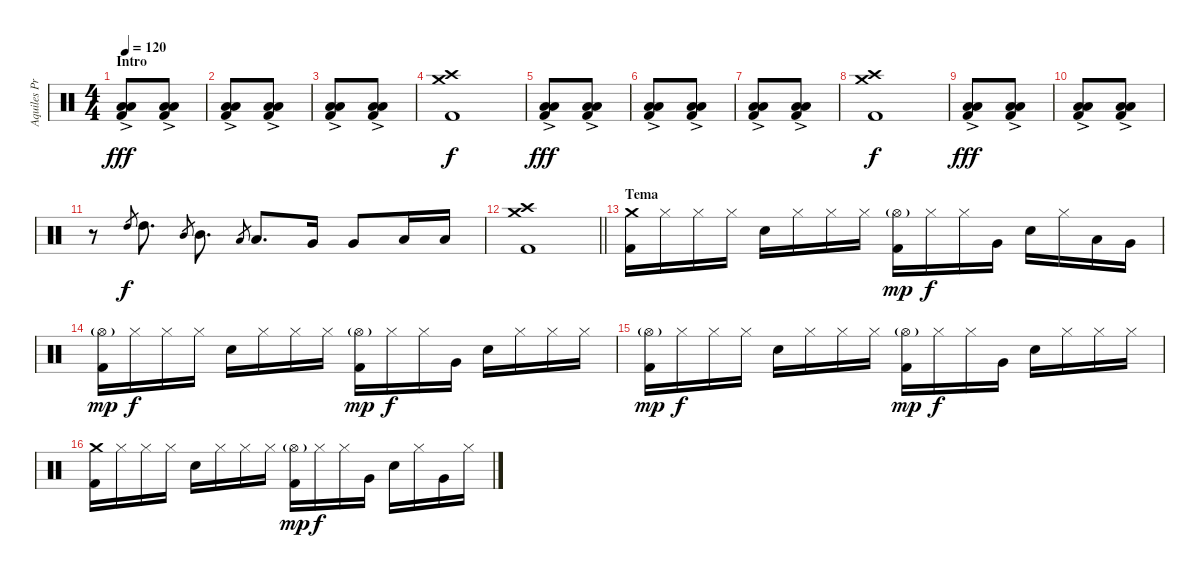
\track ("Aquiles Priester" "Aquiles Pr") {instrument percussion}
\staff {score}
\articulation defaults
\ts (4 4)
\section ("" "Intro")
\tempo 120
\clef neutral
\ks c
("Low Tom (hit)"{ac} "Low Floor Tom (hit)"{ac} "Kick (hit) 2").8{dy fff} ("Low Tom (hit)"{ac} "Low Floor Tom (hit)"{ac} "Kick (hit) 2").8 |
("Low Tom (hit)"{ac} "Low Floor Tom (hit)"{ac} "Kick (hit) 2").8 ("Low Tom (hit)"{ac} "Low Floor Tom (hit)"{ac} "Kick (hit) 2").8 |
("Low Tom (hit)"{ac} "Low Floor Tom (hit)"{ac} "Kick (hit) 2").8 ("Low Tom (hit)"{ac} "Low Floor Tom (hit)"{ac} "Kick (hit) 2").8 |
("Crash medium (hit)" "Crash high (hit)" "Kick (hit) 2").1{dy f} |
("Low Tom (hit)"{ac} "Low Floor Tom (hit)"{ac} "Kick (hit) 2").8{dy fff} ("Low Tom (hit)"{ac} "Low Floor Tom (hit)"{ac} "Kick (hit) 2").8 |
("Low Tom (hit)"{ac} "Low Floor Tom (hit)"{ac} "Kick (hit) 2").8 ("Low Tom (hit)"{ac} "Low Floor Tom (hit)"{ac} "Kick (hit) 2").8 |
("Low Tom (hit)"{ac} "Low Floor Tom (hit)"{ac} "Kick (hit) 2").8 ("Low Tom (hit)"{ac} "Low Floor Tom (hit)"{ac} "Kick (hit) 2").8 |
("Crash medium (hit)" "Crash high (hit)" "Kick (hit) 2").1{dy f} |
("Low Tom (hit)"{ac} "Low Floor Tom (hit)"{ac} "Kick (hit) 2").8{dy fff} ("Low Tom (hit)"{ac} "Low Floor Tom (hit)"{ac} "Kick (hit) 2").8 |
("Low Tom (hit)"{ac} "Low Floor Tom (hit)"{ac} "Kick (hit) 2").8 ("Low Tom (hit)"{ac} "Low Floor Tom (hit)"{ac} "Kick (hit) 2").8 |
r.8 "High Tom (hit)".8{gr dy f} "High Tom (hit)".8{d} "Mid Tom (hit)".8{gr} "Mid Tom (hit)".8{d} "Low Tom (hit)".8{gr} "Low Tom (hit)".8{d} "Very Low Tom (hit)".16 "Very Low Tom (hit)".8 "Low Floor Tom (hit)".16 "Low Floor Tom (hit)".16 |
\barLineRight lightlight
("Crash medium (hit)" "Crash high (hit)" "Kick (hit) 2").1 |
\section ("" "Tema")
("Crash medium (hit)" "Kick (hit) 2").16 "Hi-Hat (closed)".16 "Hi-Hat (closed)".16 "Hi-Hat (closed)".16 "Electric Snare (hit)".16 "Hi-Hat (closed)".16 "Hi-Hat (closed)".16 "Hi-Hat (closed)".16 ("Hi-Hat (open)"{g} "Kick (hit) 2").16{dy mp} "Hi-Hat (closed)".16{dy f} "Hi-Hat (closed)".16 "Very Low Tom (hit)".16 "Electric Snare (hit)".16 "Hi-Hat (closed)".16 "Low Tom (hit)".16 "Very Low Tom (hit)".16 |
("Hi-Hat (open)"{g} "Kick (hit) 2").16{dy mp} "Hi-Hat (closed)".16{dy f} "Hi-Hat (closed)".16 "Hi-Hat (closed)".16 "Electric Snare (hit)".16 "Hi-Hat (closed)".16 "Hi-Hat (closed)".16 "Hi-Hat (closed)".16 ("Hi-Hat (open)"{g} "Kick (hit) 2").16{dy mp} "Hi-Hat (closed)".16{dy f} "Hi-Hat (closed)".16 "Very Low Tom (hit)".16 "Electric Snare (hit)".16 "Hi-Hat (closed)".16 "Hi-Hat (closed)".16 "Hi-Hat (closed)".16 |
("Hi-Hat (open)"{g} "Kick (hit) 2").16{dy mp} "Hi-Hat (closed)".16{dy f} "Hi-Hat (closed)".16 "Hi-Hat (closed)".16 "Electric Snare (hit)".16 "Hi-Hat (closed)".16 "Hi-Hat (closed)".16 "Hi-Hat (closed)".16 ("Hi-Hat (open)"{g} "Kick (hit) 2").16{dy mp} "Hi-Hat (closed)".16{dy f} "Hi-Hat (closed)".16 "Very Low Tom (hit)".16 "Electric Snare (hit)".16 "Hi-Hat (closed)".16 "Hi-Hat (closed)".16 "Hi-Hat (closed)".16 |
("Crash medium (hit)" "Kick (hit) 2").16 "Hi-Hat (closed)".16 "Hi-Hat (closed)".16 "Hi-Hat (closed)".16 "Electric Snare (hit)".16 "Hi-Hat (closed)".16 "Hi-Hat (closed)".16 "Hi-Hat (closed)".16 ("Hi-Hat (open)"{g} "Kick (hit) 2").16{dy mp} "Hi-Hat (closed)".16{dy f} "Hi-Hat (closed)".16 "Very Low Tom (hit)".16 "Electric Snare (hit)".16 "Hi-Hat (closed)".16 "Very Low Tom (hit)".16 "Hi-Hat (closed)".16
